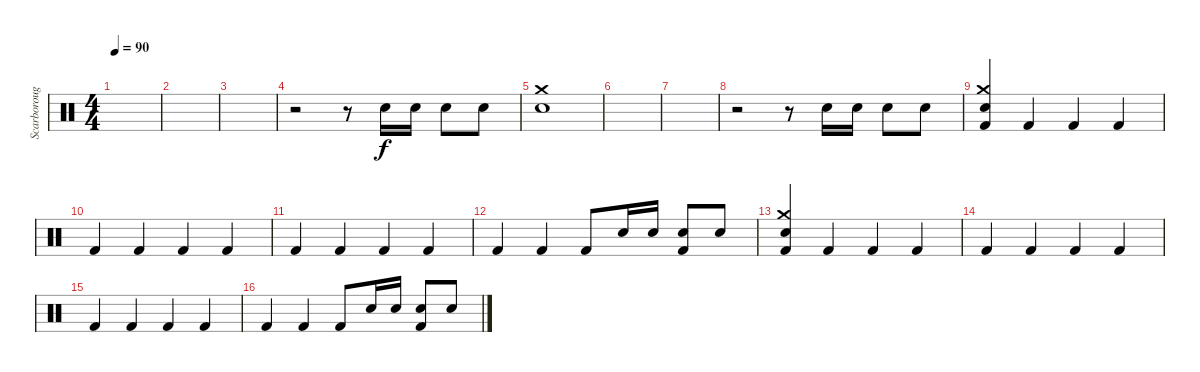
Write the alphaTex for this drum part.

\track ("Scarborough" "Scarboroug") {instrument percussion}
\staff {score}
\articulation defaults
\ts (4 4)
\tempo 90
\clef neutral
\ks c
|
|
|
r.2 r.8 "Snare (hit) 2".16 "Snare (hit) 2".16 "Snare (hit) 2".8 "Snare (hit) 2".8 |
("Crash medium (hit)" "Snare (hit) 2").1 |
|
|
r.2 r.8 "Snare (hit) 2".16 "Snare (hit) 2".16 "Snare (hit) 2".8 "Snare (hit) 2".8 |
("Crash medium (hit)" "Kick (hit) 2" "Snare (hit) 2").4 "Kick (hit) 2".4 "Kick (hit) 2".4 "Kick (hit) 2".4 |
"Kick (hit) 2".4 "Kick (hit) 2".4 "Kick (hit) 2".4 "Kick (hit) 2".4 |
"Kick (hit) 2".4 "Kick (hit) 2".4 "Kick (hit) 2".4 "Kick (hit) 2".4 |
"Kick (hit) 2".4 "Kick (hit) 2".4 "Kick (hit) 2".8 "Snare (hit) 2".16 "Snare (hit) 2".16 ("Kick (hit) 2" "Snare (hit) 2").8 "Snare (hit) 2".8 |
("Crash medium (hit)" "Kick (hit) 2" "Snare (hit) 2").4 "Kick (hit) 2".4 "Kick (hit) 2".4 "Kick (hit) 2".4 |
"Kick (hit) 2".4 "Kick (hit) 2".4 "Kick (hit) 2".4 "Kick (hit) 2".4 |
"Kick (hit) 2".4 "Kick (hit) 2".4 "Kick (hit) 2".4 "Kick (hit) 2".4 |
"Kick (hit) 2".4 "Kick (hit) 2".4 "Kick (hit) 2".8 "Snare (hit) 2".16 "Snare (hit) 2".16 ("Kick (hit) 2" "Snare (hit) 2").8 "Snare (hit) 2".8
